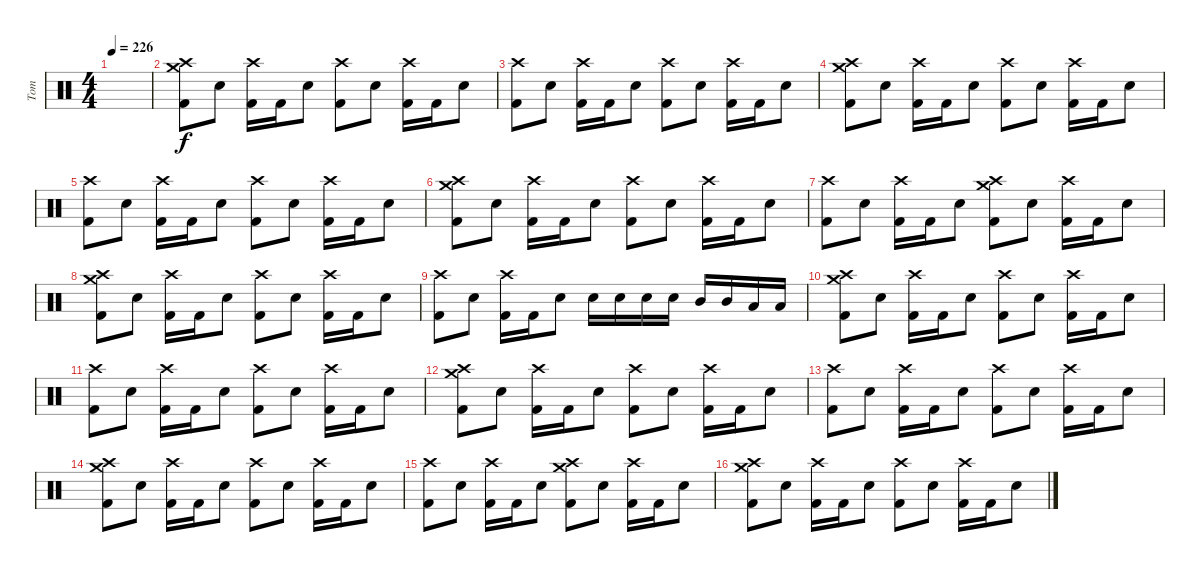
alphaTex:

\track ("Tom" "Tom") {instrument percussion}
\staff {score}
\articulation defaults
\ts (4 4)
\tempo 226
\clef neutral
\ks c
|
("Crash medium (hit)" "Crash high (hit)" "Kick (hit) 2").8 "Electric Snare (hit)".8 ("Crash high (hit)" "Kick (hit) 2").16 "Kick (hit) 2".16 "Electric Snare (hit)".8 ("Crash high (hit)" "Kick (hit) 2").8 "Electric Snare (hit)".8 ("Crash high (hit)" "Kick (hit) 2").16 "Kick (hit) 2".16 "Electric Snare (hit)".8 |
("Crash high (hit)" "Kick (hit) 2").8 "Electric Snare (hit)".8 ("Crash high (hit)" "Kick (hit) 2").16 "Kick (hit) 2".16 "Electric Snare (hit)".8 ("Crash high (hit)" "Kick (hit) 2").8 "Electric Snare (hit)".8 ("Crash high (hit)" "Kick (hit) 2").16 "Kick (hit) 2".16 "Electric Snare (hit)".8 |
("Crash medium (hit)" "Crash high (hit)" "Kick (hit) 2").8 "Electric Snare (hit)".8 ("Crash high (hit)" "Kick (hit) 2").16 "Kick (hit) 2".16 "Electric Snare (hit)".8 ("Crash high (hit)" "Kick (hit) 2").8 "Electric Snare (hit)".8 ("Crash high (hit)" "Kick (hit) 2").16 "Kick (hit) 2".16 "Electric Snare (hit)".8 |
("Crash high (hit)" "Kick (hit) 2").8 "Electric Snare (hit)".8 ("Crash high (hit)" "Kick (hit) 2").16 "Kick (hit) 2".16 "Electric Snare (hit)".8 ("Crash high (hit)" "Kick (hit) 2").8 "Electric Snare (hit)".8 ("Crash high (hit)" "Kick (hit) 2").16 "Kick (hit) 2".16 "Electric Snare (hit)".8 |
("Crash medium (hit)" "Crash high (hit)" "Kick (hit) 2").8 "Electric Snare (hit)".8 ("Crash high (hit)" "Kick (hit) 2").16 "Kick (hit) 2".16 "Electric Snare (hit)".8 ("Crash high (hit)" "Kick (hit) 2").8 "Electric Snare (hit)".8 ("Crash high (hit)" "Kick (hit) 2").16 "Kick (hit) 2".16 "Electric Snare (hit)".8 |
("Crash high (hit)" "Kick (hit) 2").8 "Electric Snare (hit)".8 ("Crash high (hit)" "Kick (hit) 2").16 "Kick (hit) 2".16 "Electric Snare (hit)".8 ("Crash medium (hit)" "Crash high (hit)" "Kick (hit) 2").8 "Electric Snare (hit)".8 ("Crash high (hit)" "Kick (hit) 2").16 "Kick (hit) 2".16 "Electric Snare (hit)".8 |
("Crash medium (hit)" "Crash high (hit)" "Kick (hit) 2").8 "Electric Snare (hit)".8 ("Crash high (hit)" "Kick (hit) 2").16 "Kick (hit) 2".16 "Electric Snare (hit)".8 ("Crash high (hit)" "Kick (hit) 2").8 "Electric Snare (hit)".8 ("Crash high (hit)" "Kick (hit) 2").16 "Kick (hit) 2".16 "Electric Snare (hit)".8 |
("Crash high (hit)" "Kick (hit) 2").8 "Electric Snare (hit)".8 ("Crash high (hit)" "Kick (hit) 2").16 "Kick (hit) 2".16 "Electric Snare (hit)".8 "Electric Snare (hit)".16 "Electric Snare (hit)".16 "Electric Snare (hit)".16 "Electric Snare (hit)".16 "Mid Tom (hit)".16 "Mid Tom (hit)".16 "Low Tom (hit)".16 "Low Tom (hit)".16 |
("Crash medium (hit)" "Crash high (hit)" "Kick (hit) 2").8 "Electric Snare (hit)".8 ("Crash high (hit)" "Kick (hit) 2").16 "Kick (hit) 2".16 "Electric Snare (hit)".8 ("Crash high (hit)" "Kick (hit) 2").8 "Electric Snare (hit)".8 ("Crash high (hit)" "Kick (hit) 2").16 "Kick (hit) 2".16 "Electric Snare (hit)".8 |
("Crash high (hit)" "Kick (hit) 2").8 "Electric Snare (hit)".8 ("Crash high (hit)" "Kick (hit) 2").16 "Kick (hit) 2".16 "Electric Snare (hit)".8 ("Crash high (hit)" "Kick (hit) 2").8 "Electric Snare (hit)".8 ("Crash high (hit)" "Kick (hit) 2").16 "Kick (hit) 2".16 "Electric Snare (hit)".8 |
("Crash medium (hit)" "Crash high (hit)" "Kick (hit) 2").8 "Electric Snare (hit)".8 ("Crash high (hit)" "Kick (hit) 2").16 "Kick (hit) 2".16 "Electric Snare (hit)".8 ("Crash high (hit)" "Kick (hit) 2").8 "Electric Snare (hit)".8 ("Crash high (hit)" "Kick (hit) 2").16 "Kick (hit) 2".16 "Electric Snare (hit)".8 |
("Crash high (hit)" "Kick (hit) 2").8 "Electric Snare (hit)".8 ("Crash high (hit)" "Kick (hit) 2").16 "Kick (hit) 2".16 "Electric Snare (hit)".8 ("Crash high (hit)" "Kick (hit) 2").8 "Electric Snare (hit)".8 ("Crash high (hit)" "Kick (hit) 2").16 "Kick (hit) 2".16 "Electric Snare (hit)".8 |
("Crash medium (hit)" "Crash high (hit)" "Kick (hit) 2").8 "Electric Snare (hit)".8 ("Crash high (hit)" "Kick (hit) 2").16 "Kick (hit) 2".16 "Electric Snare (hit)".8 ("Crash high (hit)" "Kick (hit) 2").8 "Electric Snare (hit)".8 ("Crash high (hit)" "Kick (hit) 2").16 "Kick (hit) 2".16 "Electric Snare (hit)".8 |
("Crash high (hit)" "Kick (hit) 2").8 "Electric Snare (hit)".8 ("Crash high (hit)" "Kick (hit) 2").16 "Kick (hit) 2".16 "Electric Snare (hit)".8 ("Crash medium (hit)" "Crash high (hit)" "Kick (hit) 2").8 "Electric Snare (hit)".8 ("Crash high (hit)" "Kick (hit) 2").16 "Kick (hit) 2".16 "Electric Snare (hit)".8 |
("Crash medium (hit)" "Crash high (hit)" "Kick (hit) 2").8 "Electric Snare (hit)".8 ("Crash high (hit)" "Kick (hit) 2").16 "Kick (hit) 2".16 "Electric Snare (hit)".8 ("Crash high (hit)" "Kick (hit) 2").8 "Electric Snare (hit)".8 ("Crash high (hit)" "Kick (hit) 2").16 "Kick (hit) 2".16 "Electric Snare (hit)".8
